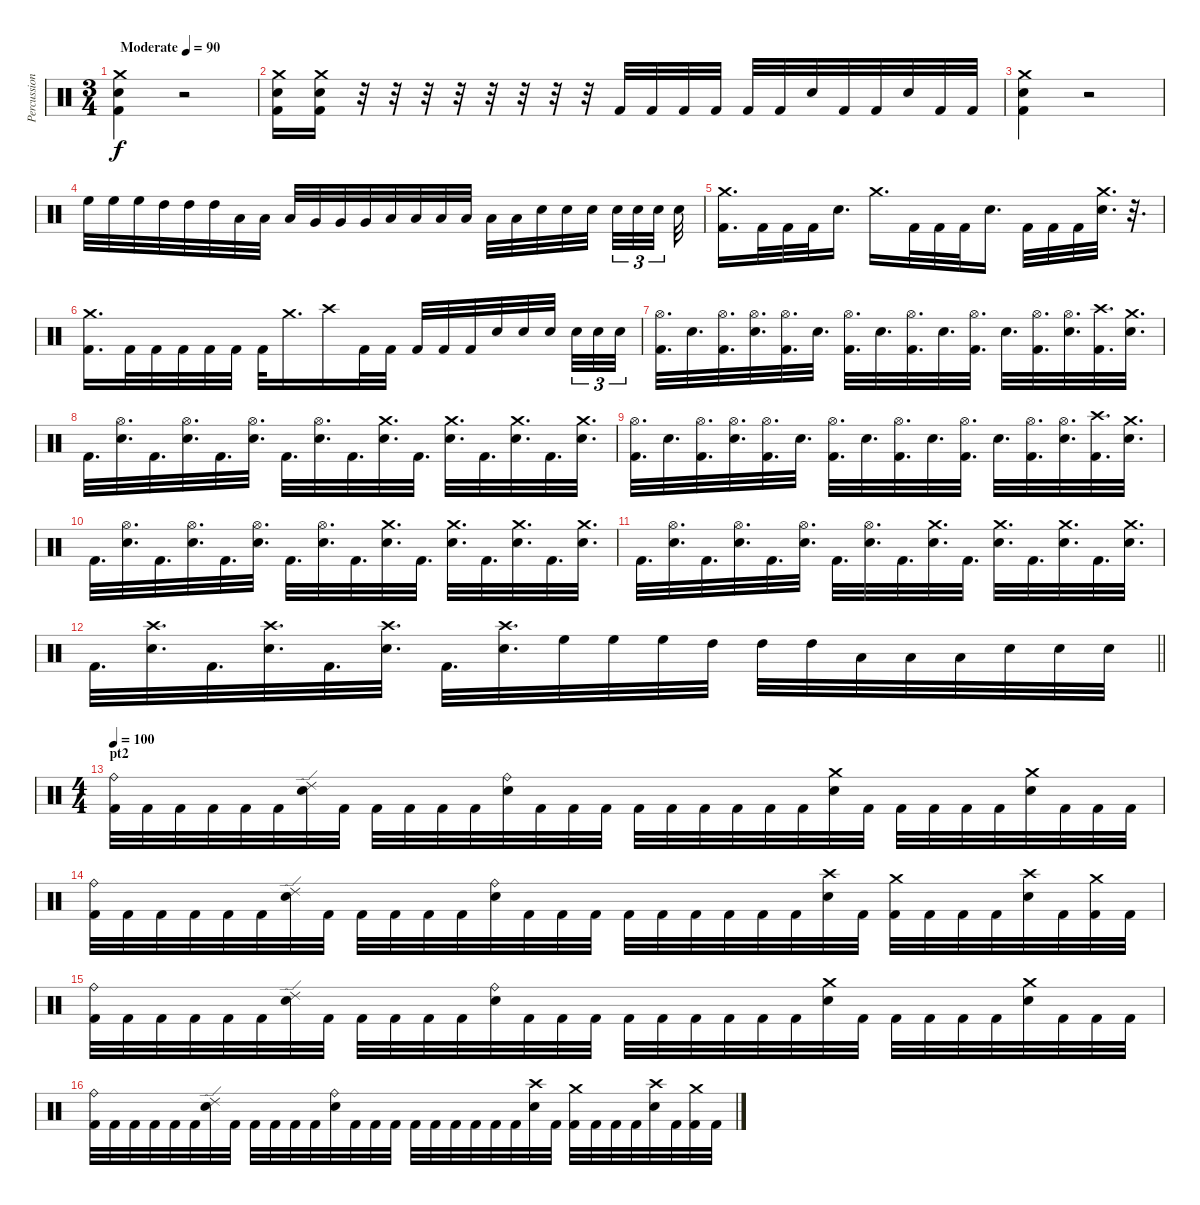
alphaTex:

\track ("Percussion" "Percussion") {instrument percussion}
\staff {score}
\articulation defaults
\ts (3 4)
\tempo (90 "Moderate")
\clef neutral
\ks c
("Crash medium (hit)" "Kick (hit) 2" "Snare (hit) 2").4{dy f} r.2 |
("Crash medium (hit)" "Kick (hit) 2" "Snare (hit) 2").16 ("Crash medium (hit)" "Kick (hit) 2" "Snare (hit) 2").16 r.32 r.32 r.32 r.32 r.32 r.32 r.32 r.32 "Kick (hit) 2".32 "Kick (hit) 2".32 "Kick (hit) 2".32 "Kick (hit) 2".32 "Kick (hit) 2".32 "Kick (hit) 2".32 "Snare (hit) 2".32 "Kick (hit) 2".32 "Kick (hit) 2".32 "Snare (hit) 2".32 "Kick (hit) 2".32 "Kick (hit) 2".32 |
("Crash medium (hit)" "Kick (hit) 2" "Snare (hit) 2").4 r.2 |
"High Floor Tom (hit)".32 "High Floor Tom (hit)".32 "High Floor Tom (hit)".32 "High Tom (hit)".32 "High Tom (hit)".32 "High Tom (hit)".32 "Low Tom (hit)".32 "Low Tom (hit)".32 "Low Tom (hit)".32 "Very Low Tom (hit)".32 "Very Low Tom (hit)".32 "Very Low Tom (hit)".32 "Low Floor Tom (hit)".32 "Low Floor Tom (hit)".32 "Low Floor Tom (hit)".32 "Low Floor Tom (hit)".32 "Low Floor Tom (hit)".32 "Low Floor Tom (hit)".32 "Snare (hit) 2".32 "Snare (hit) 2".32 "Snare (hit) 2".32{beam splitsecondary} "Snare (hit) 2".32{tu (3 2)} "Snare (hit) 2".32{tu (3 2)} "Snare (hit) 2".32{tu (3 2) beam splitsecondary} "Snare (hit) 2".32 |
("Kick (hit) 2" "Crash medium (hit)").16{d} "Kick (hit) 2".32 "Kick (hit) 2".32 "Kick (hit) 2".32 "Snare (hit) 2".16{d} "Crash medium (hit)".16{d} "Kick (hit) 2".32 "Kick (hit) 2".32 "Kick (hit) 2".32 "Snare (hit) 2".16{d} "Kick (hit) 2".32 "Kick (hit) 2".32 "Kick (hit) 2".32 ("Snare (hit) 2" "Crash medium (hit)").32{d} r.32{d} |
("Kick (hit) 2" "Crash medium (hit)").16{d} "Kick (hit) 2".32 "Kick (hit) 2".32 "Kick (hit) 2".32 "Kick (hit) 2".32 "Kick (hit) 2".32 "Kick (hit) 2".32 "Crash medium (hit)".16{d} "Crash high (hit)".16 "Kick (hit) 2".32 "Kick (hit) 2".32 "Kick (hit) 2".32 "Kick (hit) 2".32 "Kick (hit) 2".32 "Snare (hit) 2".32 "Snare (hit) 2".32 "Snare (hit) 2".32{beam splitsecondary} "Snare (hit) 2".32{tu (3 2)} "Snare (hit) 2".32{tu (3 2)} "Snare (hit) 2".32{tu (3 2)} |
("Kick (hit) 2" "Hi-Hat (open)").32{d} "Snare (hit) 2".32{d} ("Kick (hit) 2" "Hi-Hat (open)").32{d} ("Snare (hit) 2" "Hi-Hat (open)").32{d} ("Kick (hit) 2" "Hi-Hat (open)").32{d} "Snare (hit) 2".32{d} ("Kick (hit) 2" "Hi-Hat (open)").32{d} "Snare (hit) 2".32{d} ("Kick (hit) 2" "Hi-Hat (open)").32{d} "Snare (hit) 2".32{d} ("Kick (hit) 2" "Hi-Hat (open)").32{d} "Snare (hit) 2".32{d} ("Kick (hit) 2" "Hi-Hat (open)").32{d} ("Snare (hit) 2" "Hi-Hat (open)").32{d} ("Kick (hit) 2" "Crash high (hit)").32{d} ("Snare (hit) 2" "Crash medium (hit)").32{d} |
"Kick (hit) 2".32{d} ("Snare (hit) 2" "Hi-Hat (open)").32{d} "Kick (hit) 2".32{d} ("Snare (hit) 2" "Hi-Hat (open)").32{d} "Kick (hit) 2".32{d} ("Snare (hit) 2" "Hi-Hat (open)").32{d} "Kick (hit) 2".32{d} ("Snare (hit) 2" "Hi-Hat (open)").32{d} "Kick (hit) 2".32{d} ("Snare (hit) 2" "Crash medium (hit)").32{d} "Kick (hit) 2".32{d} ("Snare (hit) 2" "Crash medium (hit)").32{d} "Kick (hit) 2".32{d} ("Snare (hit) 2" "Crash medium (hit)").32{d} "Kick (hit) 2".32{d} ("Snare (hit) 2" "Crash medium (hit)").32{d} |
("Kick (hit) 2" "Hi-Hat (open)").32{d} "Snare (hit) 2".32{d} ("Kick (hit) 2" "Hi-Hat (open)").32{d} ("Snare (hit) 2" "Hi-Hat (open)").32{d} ("Kick (hit) 2" "Hi-Hat (open)").32{d} "Snare (hit) 2".32{d} ("Kick (hit) 2" "Hi-Hat (open)").32{d} "Snare (hit) 2".32{d} ("Kick (hit) 2" "Hi-Hat (open)").32{d} "Snare (hit) 2".32{d} ("Kick (hit) 2" "Hi-Hat (open)").32{d} "Snare (hit) 2".32{d} ("Kick (hit) 2" "Hi-Hat (open)").32{d} ("Snare (hit) 2" "Hi-Hat (open)").32{d} ("Kick (hit) 2" "Crash high (hit)").32{d} ("Snare (hit) 2" "Crash medium (hit)").32{d} |
"Kick (hit) 2".32{d} ("Snare (hit) 2" "Hi-Hat (open)").32{d} "Kick (hit) 2".32{d} ("Snare (hit) 2" "Hi-Hat (open)").32{d} "Kick (hit) 2".32{d} ("Snare (hit) 2" "Hi-Hat (open)").32{d} "Kick (hit) 2".32{d} ("Snare (hit) 2" "Hi-Hat (open)").32{d} "Kick (hit) 2".32{d} ("Snare (hit) 2" "Crash medium (hit)").32{d} "Kick (hit) 2".32{d} ("Snare (hit) 2" "Crash medium (hit)").32{d} "Kick (hit) 2".32{d} ("Snare (hit) 2" "Crash medium (hit)").32{d} "Kick (hit) 2".32{d} ("Snare (hit) 2" "Crash medium (hit)").32{d} |
"Kick (hit) 2".32{d} ("Snare (hit) 2" "Hi-Hat (open)").32{d} "Kick (hit) 2".32{d} ("Snare (hit) 2" "Hi-Hat (open)").32{d} "Kick (hit) 2".32{d} ("Snare (hit) 2" "Hi-Hat (open)").32{d} "Kick (hit) 2".32{d} ("Snare (hit) 2" "Hi-Hat (open)").32{d} "Kick (hit) 2".32{d} ("Snare (hit) 2" "Crash medium (hit)").32{d} "Kick (hit) 2".32{d} ("Snare (hit) 2" "Crash medium (hit)").32{d} "Kick (hit) 2".32{d} ("Snare (hit) 2" "Crash medium (hit)").32{d} "Kick (hit) 2".32{d} ("Snare (hit) 2" "Crash medium (hit)").32{d} |
\barLineRight lightlight "Kick (hit) 2".32{d}
("Snare (hit) 2" "Crash high (hit)").32{d} "Kick (hit) 2".32{d} ("Snare (hit) 2" "Crash high (hit)").32{d} "Kick (hit) 2".32{d} ("Snare (hit) 2" "Crash high (hit)").32{d} "Kick (hit) 2".32{d} ("Snare (hit) 2" "Crash high (hit)").32{d} "High Floor Tom (hit)".32 "High Floor Tom (hit)".32 "High Floor Tom (hit)".32 "High Tom (hit)".32 "High Tom (hit)".32 "High Tom (hit)".32 "Low Tom (hit)".32 "Low Tom (hit)".32 "Low Tom (hit)".32 "Snare (hit) 2".32 "Snare (hit) 2".32 "Snare (hit) 2".32 |
\ts (4 4)
\section ("" "pt2")
\tempo 100
("Kick (hit) 2" "Ride (bell)").32 "Kick (hit) 2".32 "Kick (hit) 2".32 "Kick (hit) 2".32 "Kick (hit) 2".32 "Kick (hit) 2".32 ("Snare (hit) 2" "Ride (edge) 2").32 "Kick (hit) 2".32 "Kick (hit) 2".32 "Kick (hit) 2".32 "Kick (hit) 2".32 "Kick (hit) 2".32 ("Snare (hit) 2" "Ride (bell)").32 "Kick (hit) 2".32 "Kick (hit) 2".32 "Kick (hit) 2".32 "Kick (hit) 2".32 "Kick (hit) 2".32 "Kick (hit) 2".32 "Kick (hit) 2".32 "Kick (hit) 2".32 "Kick (hit) 2".32 ("Snare (hit) 2" "Crash medium (hit)").32 "Kick (hit) 2".32 "Kick (hit) 2".32 "Kick (hit) 2".32 "Kick (hit) 2".32 "Kick (hit) 2".32 ("Snare (hit) 2" "Crash medium (hit)").32 "Kick (hit) 2".32 "Kick (hit) 2".32 "Kick (hit) 2".32 |
("Kick (hit) 2" "Ride (bell)").32 "Kick (hit) 2".32 "Kick (hit) 2".32 "Kick (hit) 2".32 "Kick (hit) 2".32 "Kick (hit) 2".32 ("Snare (hit) 2" "Ride (edge) 2").32 "Kick (hit) 2".32 "Kick (hit) 2".32 "Kick (hit) 2".32 "Kick (hit) 2".32 "Kick (hit) 2".32 ("Snare (hit) 2" "Ride (bell)").32 "Kick (hit) 2".32 "Kick (hit) 2".32 "Kick (hit) 2".32 "Kick (hit) 2".32 "Kick (hit) 2".32 "Kick (hit) 2".32 "Kick (hit) 2".32 "Kick (hit) 2".32 "Kick (hit) 2".32 ("Snare (hit) 2" "Crash high (hit)").32 "Kick (hit) 2".32 ("Kick (hit) 2" "Crash medium (hit)").32 "Kick (hit) 2".32 "Kick (hit) 2".32 "Kick (hit) 2".32 ("Snare (hit) 2" "Crash high (hit)").32 "Kick (hit) 2".32 ("Kick (hit) 2" "Crash medium (hit)").32 "Kick (hit) 2".32 |
("Kick (hit) 2" "Ride (bell)").32 "Kick (hit) 2".32 "Kick (hit) 2".32 "Kick (hit) 2".32 "Kick (hit) 2".32 "Kick (hit) 2".32 ("Snare (hit) 2" "Ride (edge) 2").32 "Kick (hit) 2".32 "Kick (hit) 2".32 "Kick (hit) 2".32 "Kick (hit) 2".32 "Kick (hit) 2".32 ("Snare (hit) 2" "Ride (bell)").32 "Kick (hit) 2".32 "Kick (hit) 2".32 "Kick (hit) 2".32 "Kick (hit) 2".32 "Kick (hit) 2".32 "Kick (hit) 2".32 "Kick (hit) 2".32 "Kick (hit) 2".32 "Kick (hit) 2".32 ("Snare (hit) 2" "Crash medium (hit)").32 "Kick (hit) 2".32 "Kick (hit) 2".32 "Kick (hit) 2".32 "Kick (hit) 2".32 "Kick (hit) 2".32 ("Snare (hit) 2" "Crash medium (hit)").32 "Kick (hit) 2".32 "Kick (hit) 2".32 "Kick (hit) 2".32 |
("Kick (hit) 2" "Ride (bell)").32 "Kick (hit) 2".32 "Kick (hit) 2".32 "Kick (hit) 2".32 "Kick (hit) 2".32 "Kick (hit) 2".32 ("Snare (hit) 2" "Ride (edge) 2").32 "Kick (hit) 2".32 "Kick (hit) 2".32 "Kick (hit) 2".32 "Kick (hit) 2".32 "Kick (hit) 2".32 ("Snare (hit) 2" "Ride (bell)").32 "Kick (hit) 2".32 "Kick (hit) 2".32 "Kick (hit) 2".32 "Kick (hit) 2".32 "Kick (hit) 2".32 "Kick (hit) 2".32 "Kick (hit) 2".32 "Kick (hit) 2".32 "Kick (hit) 2".32 ("Snare (hit) 2" "Crash high (hit)").32 "Kick (hit) 2".32 ("Kick (hit) 2" "Crash medium (hit)").32 "Kick (hit) 2".32 "Kick (hit) 2".32 "Kick (hit) 2".32 ("Snare (hit) 2" "Crash high (hit)").32 "Kick (hit) 2".32 ("Kick (hit) 2" "Crash medium (hit)").32 "Kick (hit) 2".32
